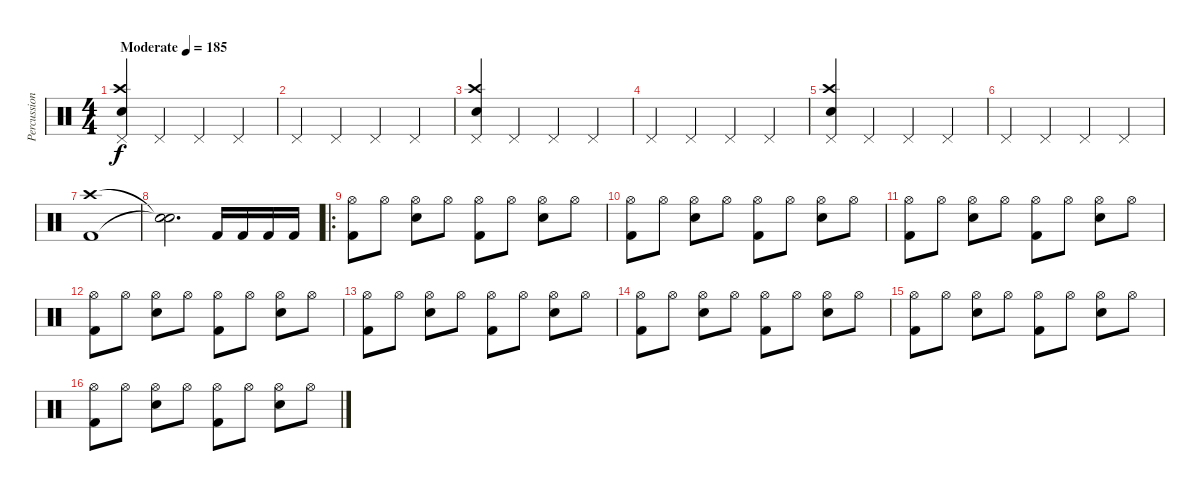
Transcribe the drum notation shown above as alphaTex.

\track ("Percussion" "Percussion") {instrument percussion}
\staff {score}
\articulation defaults
\ts (4 4)
\tempo (185 "Moderate")
\clef neutral
\ks c
("Pedal Hi-Hat (hit)" "Crash high (hit)" "Snare (hit) 2").4{dy f} "Pedal Hi-Hat (hit)".4 "Pedal Hi-Hat (hit)".4 "Pedal Hi-Hat (hit)".4 |
"Pedal Hi-Hat (hit)".4 "Pedal Hi-Hat (hit)".4 "Pedal Hi-Hat (hit)".4 "Pedal Hi-Hat (hit)".4 |
("Pedal Hi-Hat (hit)" "Crash high (hit)" "Snare (hit) 2").4 "Pedal Hi-Hat (hit)".4 "Pedal Hi-Hat (hit)".4 "Pedal Hi-Hat (hit)".4 |
"Pedal Hi-Hat (hit)".4 "Pedal Hi-Hat (hit)".4 "Pedal Hi-Hat (hit)".4 "Pedal Hi-Hat (hit)".4 |
("Pedal Hi-Hat (hit)" "Crash high (hit)" "Snare (hit) 2").4 "Pedal Hi-Hat (hit)".4 "Pedal Hi-Hat (hit)".4 "Pedal Hi-Hat (hit)".4 |
"Pedal Hi-Hat (hit)".4 "Pedal Hi-Hat (hit)".4 "Pedal Hi-Hat (hit)".4 "Pedal Hi-Hat (hit)".4 |
("Crash high (hit)" "Kick (hit) 2").1 |
("Snare (hit)"{t} "Snare (hit)"{t}).2{d} "Kick (hit) 2".16 "Kick (hit) 2".16 "Kick (hit) 2".16 "Kick (hit) 2".16 |
\ro
("Hi-Hat (open)" "Kick (hit) 2").8 "Hi-Hat (open)".8 ("Hi-Hat (open)" "Snare (hit) 2").8 "Hi-Hat (open)".8 ("Hi-Hat (open)" "Kick (hit) 2").8 "Hi-Hat (open)".8 ("Hi-Hat (open)" "Snare (hit) 2").8 "Hi-Hat (open)".8 |
("Hi-Hat (open)" "Kick (hit) 2").8 "Hi-Hat (open)".8 ("Hi-Hat (open)" "Snare (hit) 2").8 "Hi-Hat (open)".8 ("Hi-Hat (open)" "Kick (hit) 2").8 "Hi-Hat (open)".8 ("Hi-Hat (open)" "Snare (hit) 2").8 "Hi-Hat (open)".8 |
("Hi-Hat (open)" "Kick (hit) 2").8 "Hi-Hat (open)".8 ("Hi-Hat (open)" "Snare (hit) 2").8 "Hi-Hat (open)".8 ("Hi-Hat (open)" "Kick (hit) 2").8 "Hi-Hat (open)".8 ("Hi-Hat (open)" "Snare (hit) 2").8 "Hi-Hat (open)".8 |
("Hi-Hat (open)" "Kick (hit) 2").8 "Hi-Hat (open)".8 ("Hi-Hat (open)" "Snare (hit) 2").8 "Hi-Hat (open)".8 ("Hi-Hat (open)" "Kick (hit) 2").8 "Hi-Hat (open)".8 ("Hi-Hat (open)" "Snare (hit) 2").8 "Hi-Hat (open)".8 |
("Hi-Hat (open)" "Kick (hit) 2").8 "Hi-Hat (open)".8 ("Hi-Hat (open)" "Snare (hit) 2").8 "Hi-Hat (open)".8 ("Hi-Hat (open)" "Kick (hit) 2").8 "Hi-Hat (open)".8 ("Hi-Hat (open)" "Snare (hit) 2").8 "Hi-Hat (open)".8 |
("Hi-Hat (open)" "Kick (hit) 2").8 "Hi-Hat (open)".8 ("Hi-Hat (open)" "Snare (hit) 2").8 "Hi-Hat (open)".8 ("Hi-Hat (open)" "Kick (hit) 2").8 "Hi-Hat (open)".8 ("Hi-Hat (open)" "Snare (hit) 2").8 "Hi-Hat (open)".8 |
("Hi-Hat (open)" "Kick (hit) 2").8 "Hi-Hat (open)".8 ("Hi-Hat (open)" "Snare (hit) 2").8 "Hi-Hat (open)".8 ("Hi-Hat (open)" "Kick (hit) 2").8 "Hi-Hat (open)".8 ("Hi-Hat (open)" "Snare (hit) 2").8 "Hi-Hat (open)".8 |
("Hi-Hat (open)" "Kick (hit) 2").8 "Hi-Hat (open)".8 ("Hi-Hat (open)" "Snare (hit) 2").8 "Hi-Hat (open)".8 ("Hi-Hat (open)" "Kick (hit) 2").8 "Hi-Hat (open)".8 ("Hi-Hat (open)" "Snare (hit) 2").8 "Hi-Hat (open)".8
